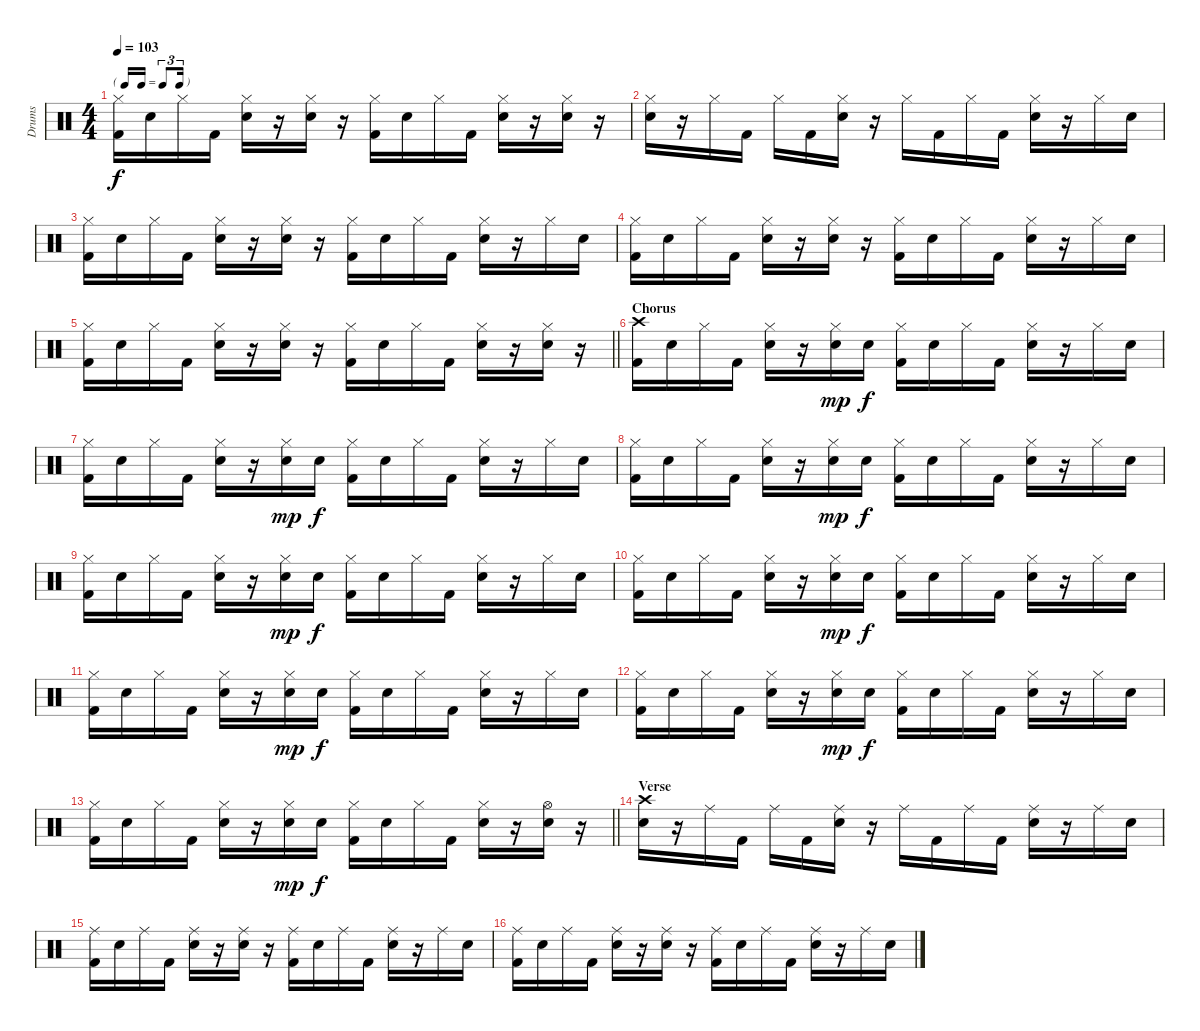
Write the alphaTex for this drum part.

\track ("Drums" "Drums") {instrument percussion}
\staff {score}
\articulation defaults
\ts (4 4)
\tf triplet16th
\tempo 103
\clef neutral
\ks c
("Hi-Hat (closed)" "Kick (hit) 2").16{dy f} "Electric Snare (hit)".16 "Hi-Hat (closed)".16 "Kick (hit) 2".16 ("Hi-Hat (closed)" "Electric Snare (hit)").16 r.16 ("Hi-Hat (closed)" "Electric Snare (hit)").16 r.16 ("Hi-Hat (closed)" "Kick (hit) 2").16 "Electric Snare (hit)".16 "Hi-Hat (closed)".16 "Kick (hit) 2".16 ("Hi-Hat (closed)" "Electric Snare (hit)").16 r.16 ("Hi-Hat (closed)" "Electric Snare (hit)").16 r.16 |
("Hi-Hat (closed)" "Electric Snare (hit)").16 r.16 "Hi-Hat (closed)".16 "Kick (hit) 2".16 "Hi-Hat (closed)".16 "Kick (hit) 2".16 ("Hi-Hat (closed)" "Electric Snare (hit)").16 r.16 "Hi-Hat (closed)".16 "Kick (hit) 2".16 "Hi-Hat (closed)".16 "Kick (hit) 2".16 ("Hi-Hat (closed)" "Electric Snare (hit)").16 r.16 "Hi-Hat (closed)".16 "Electric Snare (hit)".16 |
("Hi-Hat (closed)" "Kick (hit) 2").16 "Electric Snare (hit)".16 "Hi-Hat (closed)".16 "Kick (hit) 2".16 ("Hi-Hat (closed)" "Electric Snare (hit)").16 r.16 ("Hi-Hat (closed)" "Electric Snare (hit)").16 r.16 ("Hi-Hat (closed)" "Kick (hit) 2").16 "Electric Snare (hit)".16 "Hi-Hat (closed)".16 "Kick (hit) 2".16 ("Hi-Hat (closed)" "Electric Snare (hit)").16 r.16 "Hi-Hat (closed)".16 "Electric Snare (hit)".16 |
("Hi-Hat (closed)" "Kick (hit) 2").16 "Electric Snare (hit)".16 "Hi-Hat (closed)".16 "Kick (hit) 2".16 ("Hi-Hat (closed)" "Electric Snare (hit)").16 r.16 ("Hi-Hat (closed)" "Electric Snare (hit)").16 r.16 ("Hi-Hat (closed)" "Kick (hit) 2").16 "Electric Snare (hit)".16 "Hi-Hat (closed)".16 "Kick (hit) 2".16 ("Hi-Hat (closed)" "Electric Snare (hit)").16 r.16 "Hi-Hat (closed)".16 "Electric Snare (hit)".16 |
\barLineRight lightlight
("Hi-Hat (closed)" "Kick (hit) 2").16 "Electric Snare (hit)".16 "Hi-Hat (closed)".16 "Kick (hit) 2".16 ("Hi-Hat (closed)" "Electric Snare (hit)").16 r.16 ("Hi-Hat (closed)" "Electric Snare (hit)").16 r.16 ("Hi-Hat (closed)" "Kick (hit) 2").16 "Electric Snare (hit)".16 "Hi-Hat (closed)".16 "Kick (hit) 2".16 ("Hi-Hat (closed)" "Electric Snare (hit)").16 r.16 ("Hi-Hat (closed)" "Electric Snare (hit)").16 r.16 |
\section ("" "Chorus")
("Crash high (hit)" "Kick (hit) 2").16 "Electric Snare (hit)".16 "Hi-Hat (closed)".16 "Kick (hit) 2".16 ("Hi-Hat (closed)" "Electric Snare (hit)").16 r.16 ("Hi-Hat (closed)" "Electric Snare (hit)").16{dy mp} "Electric Snare (hit)".16{dy f} ("Hi-Hat (closed)" "Kick (hit) 2").16 "Electric Snare (hit)".16 "Hi-Hat (closed)".16 "Kick (hit) 2".16 ("Hi-Hat (closed)" "Electric Snare (hit)").16 r.16 "Hi-Hat (closed)".16 "Electric Snare (hit)".16 |
("Hi-Hat (closed)" "Kick (hit) 2").16 "Electric Snare (hit)".16 "Hi-Hat (closed)".16 "Kick (hit) 2".16 ("Hi-Hat (closed)" "Electric Snare (hit)").16 r.16 ("Hi-Hat (closed)" "Electric Snare (hit)").16{dy mp} "Electric Snare (hit)".16{dy f} ("Hi-Hat (closed)" "Kick (hit) 2").16 "Electric Snare (hit)".16 "Hi-Hat (closed)".16 "Kick (hit) 2".16 ("Hi-Hat (closed)" "Electric Snare (hit)").16 r.16 "Hi-Hat (closed)".16 "Electric Snare (hit)".16 |
("Hi-Hat (closed)" "Kick (hit) 2").16 "Electric Snare (hit)".16 "Hi-Hat (closed)".16 "Kick (hit) 2".16 ("Hi-Hat (closed)" "Electric Snare (hit)").16 r.16 ("Hi-Hat (closed)" "Electric Snare (hit)").16{dy mp} "Electric Snare (hit)".16{dy f} ("Hi-Hat (closed)" "Kick (hit) 2").16 "Electric Snare (hit)".16 "Hi-Hat (closed)".16 "Kick (hit) 2".16 ("Hi-Hat (closed)" "Electric Snare (hit)").16 r.16 "Hi-Hat (closed)".16 "Electric Snare (hit)".16 |
("Hi-Hat (closed)" "Kick (hit) 2").16 "Electric Snare (hit)".16 "Hi-Hat (closed)".16 "Kick (hit) 2".16 ("Hi-Hat (closed)" "Electric Snare (hit)").16 r.16 ("Hi-Hat (closed)" "Electric Snare (hit)").16{dy mp} "Electric Snare (hit)".16{dy f} ("Hi-Hat (closed)" "Kick (hit) 2").16 "Electric Snare (hit)".16 "Hi-Hat (closed)".16 "Kick (hit) 2".16 ("Hi-Hat (closed)" "Electric Snare (hit)").16 r.16 "Hi-Hat (closed)".16 "Electric Snare (hit)".16 |
("Hi-Hat (closed)" "Kick (hit) 2").16 "Electric Snare (hit)".16 "Hi-Hat (closed)".16 "Kick (hit) 2".16 ("Hi-Hat (closed)" "Electric Snare (hit)").16 r.16 ("Hi-Hat (closed)" "Electric Snare (hit)").16{dy mp} "Electric Snare (hit)".16{dy f} ("Hi-Hat (closed)" "Kick (hit) 2").16 "Electric Snare (hit)".16 "Hi-Hat (closed)".16 "Kick (hit) 2".16 ("Hi-Hat (closed)" "Electric Snare (hit)").16 r.16 "Hi-Hat (closed)".16 "Electric Snare (hit)".16 |
("Hi-Hat (closed)" "Kick (hit) 2").16 "Electric Snare (hit)".16 "Hi-Hat (closed)".16 "Kick (hit) 2".16 ("Hi-Hat (closed)" "Electric Snare (hit)").16 r.16 ("Hi-Hat (closed)" "Electric Snare (hit)").16{dy mp} "Electric Snare (hit)".16{dy f} ("Hi-Hat (closed)" "Kick (hit) 2").16 "Electric Snare (hit)".16 "Hi-Hat (closed)".16 "Kick (hit) 2".16 ("Hi-Hat (closed)" "Electric Snare (hit)").16 r.16 "Hi-Hat (closed)".16 "Electric Snare (hit)".16 |
("Hi-Hat (closed)" "Kick (hit) 2").16 "Electric Snare (hit)".16 "Hi-Hat (closed)".16 "Kick (hit) 2".16 ("Hi-Hat (closed)" "Electric Snare (hit)").16 r.16 ("Hi-Hat (closed)" "Electric Snare (hit)").16{dy mp} "Electric Snare (hit)".16{dy f} ("Hi-Hat (closed)" "Kick (hit) 2").16 "Electric Snare (hit)".16 "Hi-Hat (closed)".16 "Kick (hit) 2".16 ("Hi-Hat (closed)" "Electric Snare (hit)").16 r.16 "Hi-Hat (closed)".16 "Electric Snare (hit)".16 |
\barLineRight lightlight
("Hi-Hat (closed)" "Kick (hit) 2").16 "Electric Snare (hit)".16 "Hi-Hat (closed)".16 "Kick (hit) 2".16 ("Hi-Hat (closed)" "Electric Snare (hit)").16 r.16 ("Hi-Hat (closed)" "Electric Snare (hit)").16{dy mp} "Electric Snare (hit)".16{dy f} ("Hi-Hat (closed)" "Kick (hit) 2").16 "Electric Snare (hit)".16 "Hi-Hat (closed)".16 "Kick (hit) 2".16 ("Hi-Hat (closed)" "Electric Snare (hit)").16 r.16 ("Hi-Hat (open)" "Electric Snare (hit)").16 r.16 |
\section ("" "Verse")
("Crash high (hit)" "Electric Snare (hit)").16 r.16 "Ride (middle)".16 "Kick (hit) 2".16 "Ride (middle)".16 "Kick (hit) 2".16 ("Ride (middle)" "Electric Snare (hit)").16 r.16 "Ride (middle)".16 "Kick (hit) 2".16 "Ride (middle)".16 "Kick (hit) 2".16 ("Ride (middle)" "Electric Snare (hit)").16 r.16 "Ride (middle)".16 "Electric Snare (hit)".16 |
("Ride (middle)" "Kick (hit) 2").16 "Electric Snare (hit)".16 "Ride (middle)".16 "Kick (hit) 2".16 ("Ride (middle)" "Electric Snare (hit)").16 r.16 ("Ride (middle)" "Electric Snare (hit)").16 r.16 ("Ride (middle)" "Kick (hit) 2").16 "Electric Snare (hit)".16 "Ride (middle)".16 "Kick (hit) 2".16 ("Ride (middle)" "Electric Snare (hit)").16 r.16 "Ride (middle)".16 "Electric Snare (hit)".16 |
("Ride (middle)" "Kick (hit) 2").16 "Electric Snare (hit)".16 "Ride (middle)".16 "Kick (hit) 2".16 ("Ride (middle)" "Electric Snare (hit)").16 r.16 ("Ride (middle)" "Electric Snare (hit)").16 r.16 ("Ride (middle)" "Kick (hit) 2").16 "Electric Snare (hit)".16 "Ride (middle)".16 "Kick (hit) 2".16 ("Ride (middle)" "Electric Snare (hit)").16 r.16 "Ride (middle)".16 "Electric Snare (hit)".16
